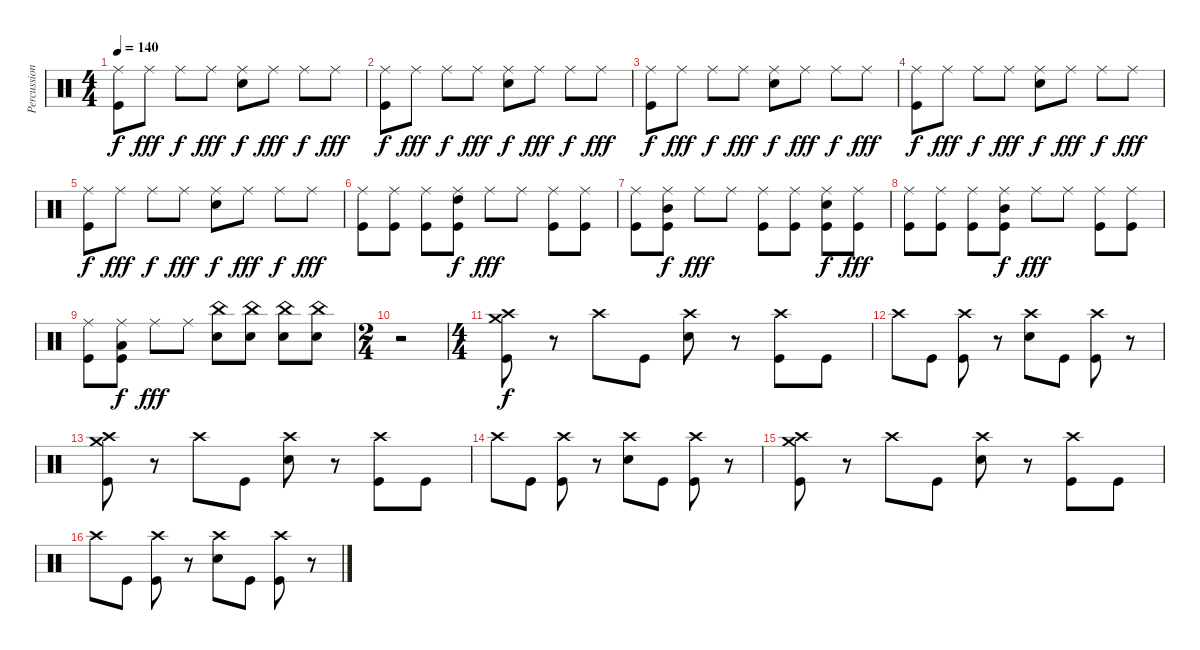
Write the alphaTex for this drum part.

\track ("Percussion" "Percussion") {instrument percussion}
\staff {score}
\articulation defaults
\ts (4 4)
\tempo 140
\clef neutral
\ks c
("Ride (middle)" "Kick (hit)").8{dy f} "Ride (middle)".8{dy fff} "Ride (middle)".8{dy f} "Ride (middle)".8{dy fff} ("Ride (middle)" "Snare (hit) 2").8{dy f} "Ride (middle)".8{dy fff} "Ride (middle)".8{dy f} "Ride (middle)".8{dy fff} |
("Ride (middle)" "Kick (hit)").8{dy f} "Ride (middle)".8{dy fff} "Ride (middle)".8{dy f} "Ride (middle)".8{dy fff} ("Ride (middle)" "Snare (hit) 2").8{dy f} "Ride (middle)".8{dy fff} "Ride (middle)".8{dy f} "Ride (middle)".8{dy fff} |
("Ride (middle)" "Kick (hit)").8{dy f} "Ride (middle)".8{dy fff} "Ride (middle)".8{dy f} "Ride (middle)".8{dy fff} ("Ride (middle)" "Snare (hit) 2").8{dy f} "Ride (middle)".8{dy fff} "Ride (middle)".8{dy f} "Ride (middle)".8{dy fff} |
("Ride (middle)" "Kick (hit)").8{dy f} "Ride (middle)".8{dy fff} "Ride (middle)".8{dy f} "Ride (middle)".8{dy fff} ("Ride (middle)" "Snare (hit) 2").8{dy f} "Ride (middle)".8{dy fff} "Ride (middle)".8{dy f} "Ride (middle)".8{dy fff} |
("Ride (middle)" "Kick (hit)").8{dy f} "Ride (middle)".8{dy fff} "Ride (middle)".8{dy f} "Ride (middle)".8{dy fff} ("Ride (middle)" "Snare (hit) 2").8{dy f} "Ride (middle)".8{dy fff} "Ride (middle)".8{dy f} "Ride (middle)".8{dy fff} |
("Ride (middle)" "Kick (hit)").8 ("Ride (middle)" "Kick (hit)").8 ("Ride (middle)" "Kick (hit)").8 ("Ride (middle)" "High Tom (hit)" "Kick (hit)").8{dy f} "Ride (middle)".8{dy fff} "Ride (middle)".8 ("Ride (middle)" "Kick (hit)").8 ("Ride (middle)" "Kick (hit)").8 |
("Ride (middle)" "Kick (hit)").8 ("Ride (middle)" "Mid Tom (hit)" "Kick (hit)").8{dy f} "Ride (middle)".8{dy fff} "Ride (middle)".8 ("Ride (middle)" "Kick (hit)").8 ("Ride (middle)" "Kick (hit)").8 ("Ride (middle)" "Snare (hit) 2" "Kick (hit)").8{dy f} ("Ride (middle)" "Kick (hit)").8{dy fff} |
("Ride (middle)" "Kick (hit)").8 ("Ride (middle)" "Kick (hit)").8 ("Ride (middle)" "Kick (hit)").8 ("Ride (middle)" "Mid Tom (hit)" "Kick (hit)").8{dy f} "Ride (middle)".8{dy fff} "Ride (middle)".8 ("Ride (middle)" "Kick (hit)").8 ("Ride (middle)" "Kick (hit)").8 |
("Ride (middle)" "Kick (hit)").8 ("Ride (middle)" "Low Tom (hit)" "Kick (hit)").8{dy f} "Ride (middle)".8{dy fff} "Ride (middle)".8 ("China (hit)" "Snare (hit) 2").8 ("China (hit)" "Snare (hit) 2").8 ("China (hit)" "Snare (hit) 2").8 ("China (hit)" "Snare (hit) 2").8 |
\ts (2 4)
r.2 |
\ts (4 4)
("Crash medium (hit)" "Crash high (hit)" "Kick (hit)").8{dy f} r.8 "Crash high (hit)".8 "Kick (hit)".8 ("Crash high (hit)" "Snare (hit) 2").8 r.8 ("Crash high (hit)" "Kick (hit)").8 "Kick (hit)".8 |
"Crash high (hit)".8 "Kick (hit)".8 ("Crash high (hit)" "Kick (hit)").8 r.8 ("Crash high (hit)" "Snare (hit) 2").8 "Kick (hit)".8 ("Crash high (hit)" "Kick (hit)").8 r.8 |
("Crash medium (hit)" "Crash high (hit)" "Kick (hit)").8 r.8 "Crash high (hit)".8 "Kick (hit)".8 ("Crash high (hit)" "Snare (hit) 2").8 r.8 ("Crash high (hit)" "Kick (hit)").8 "Kick (hit)".8 |
"Crash high (hit)".8 "Kick (hit)".8 ("Crash high (hit)" "Kick (hit)").8 r.8 ("Crash high (hit)" "Snare (hit) 2").8 "Kick (hit)".8 ("Crash high (hit)" "Kick (hit)").8 r.8 |
("Crash medium (hit)" "Crash high (hit)" "Kick (hit)").8 r.8 "Crash high (hit)".8 "Kick (hit)".8 ("Crash high (hit)" "Snare (hit) 2").8 r.8 ("Crash high (hit)" "Kick (hit)").8 "Kick (hit)".8 |
"Crash high (hit)".8 "Kick (hit)".8 ("Crash high (hit)" "Kick (hit)").8 r.8 ("Crash high (hit)" "Snare (hit) 2").8 "Kick (hit)".8 ("Crash high (hit)" "Kick (hit)").8 r.8
